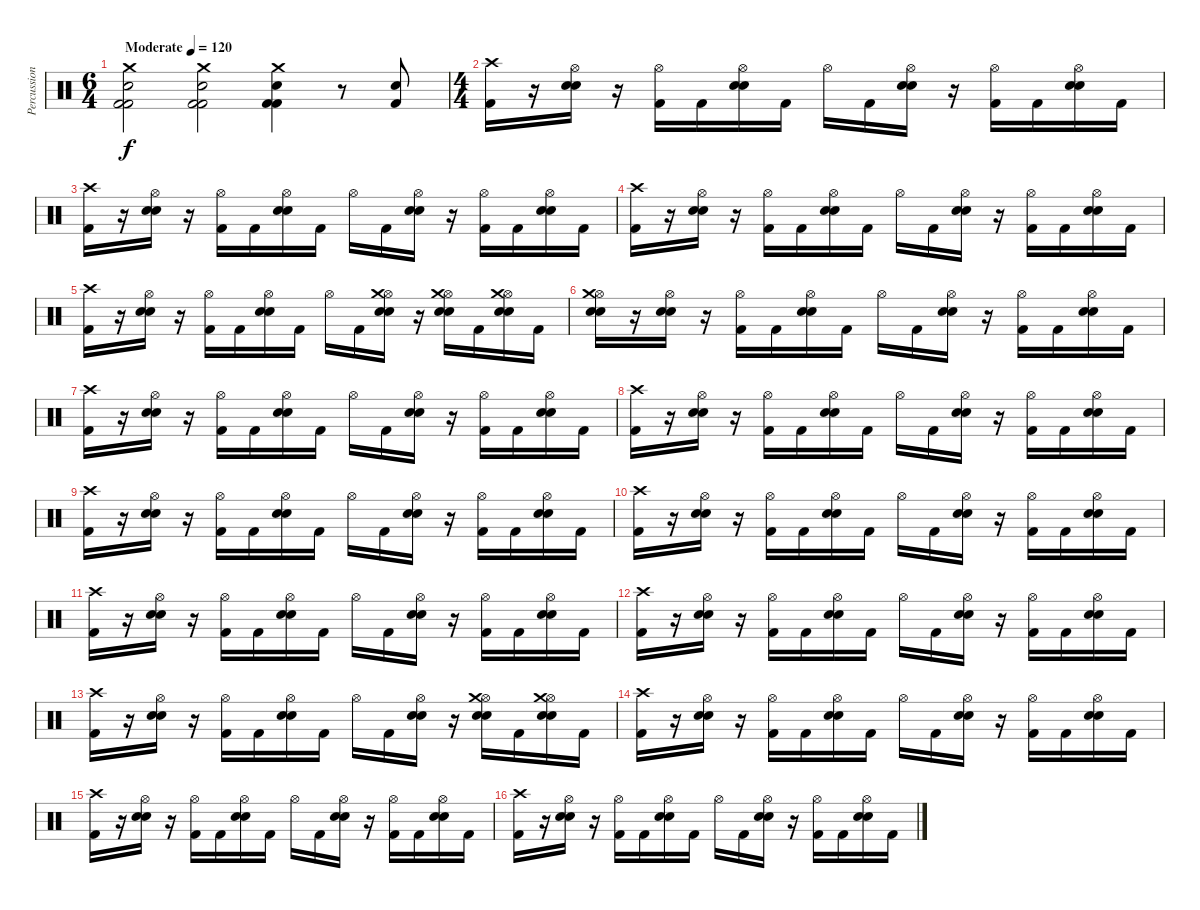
\track ("Percussion" "Percussion") {instrument percussion}
\staff {score}
\articulation defaults
\ts (6 4)
\tempo (120 "Moderate")
\clef neutral
\ks c
("Crash medium (hit)" "Electric Snare (hit)" "Kick (hit) 2" "Kick (hit) 2").2{dy f} ("Crash medium (hit)" "Electric Snare (hit)" "Kick (hit) 2" "Kick (hit) 2").2 ("Crash medium (hit)" "Electric Snare (hit)" "Kick (hit) 2" "Kick (hit) 2").4 r.8 ("Snare (hit) 2" "Kick (hit) 2").8 |
\ts (4 4)
("Kick (hit) 2" "Crash high (hit)").16 r.16 ("Hi-Hat (open)" "Electric Snare (hit)" "Snare (hit) 2").16 r.16 ("Kick (hit) 2" "Hi-Hat (open)").16 "Kick (hit) 2".16 ("Electric Snare (hit)" "Hi-Hat (open)" "Snare (hit) 2").16 "Kick (hit) 2".16 "Hi-Hat (open)".16 "Kick (hit) 2".16 ("Hi-Hat (open)" "Electric Snare (hit)" "Snare (hit) 2").16 r.16 ("Kick (hit) 2" "Hi-Hat (open)").16 "Kick (hit) 2".16 ("Electric Snare (hit)" "Hi-Hat (open)" "Snare (hit) 2").16 "Kick (hit) 2".16 |
("Kick (hit) 2" "Crash high (hit)").16 r.16 ("Hi-Hat (open)" "Electric Snare (hit)" "Snare (hit) 2").16 r.16 ("Kick (hit) 2" "Hi-Hat (open)").16 "Kick (hit) 2".16 ("Electric Snare (hit)" "Hi-Hat (open)" "Snare (hit) 2").16 "Kick (hit) 2".16 "Hi-Hat (open)".16 "Kick (hit) 2".16 ("Hi-Hat (open)" "Electric Snare (hit)" "Snare (hit) 2").16 r.16 ("Kick (hit) 2" "Hi-Hat (open)").16 "Kick (hit) 2".16 ("Electric Snare (hit)" "Hi-Hat (open)" "Snare (hit) 2").16 "Kick (hit) 2".16 |
("Kick (hit) 2" "Crash high (hit)").16 r.16 ("Hi-Hat (open)" "Electric Snare (hit)" "Snare (hit) 2").16 r.16 ("Kick (hit) 2" "Hi-Hat (open)").16 "Kick (hit) 2".16 ("Electric Snare (hit)" "Hi-Hat (open)" "Snare (hit) 2").16 "Kick (hit) 2".16 "Hi-Hat (open)".16 "Kick (hit) 2".16 ("Hi-Hat (open)" "Electric Snare (hit)" "Snare (hit) 2").16 r.16 ("Kick (hit) 2" "Hi-Hat (open)").16 "Kick (hit) 2".16 ("Electric Snare (hit)" "Hi-Hat (open)" "Snare (hit) 2").16 "Kick (hit) 2".16 |
("Kick (hit) 2" "Crash high (hit)").16 r.16 ("Hi-Hat (open)" "Electric Snare (hit)" "Snare (hit) 2").16 r.16 ("Kick (hit) 2" "Hi-Hat (open)").16 "Kick (hit) 2".16 ("Electric Snare (hit)" "Hi-Hat (open)" "Snare (hit) 2").16 "Kick (hit) 2".16 "Hi-Hat (open)".16 "Kick (hit) 2".16 ("Hi-Hat (open)" "Electric Snare (hit)" "Snare (hit) 2" "Crash medium (hit)").16 r.16 ("Hi-Hat (open)" "Electric Snare (hit)" "Snare (hit) 2" "Crash medium (hit)").16 "Kick (hit) 2".16 ("Hi-Hat (open)" "Electric Snare (hit)" "Snare (hit) 2" "Crash medium (hit)").16 "Kick (hit) 2".16 |
("Hi-Hat (open)" "Electric Snare (hit)" "Snare (hit) 2" "Crash medium (hit)").16 r.16 ("Hi-Hat (open)" "Electric Snare (hit)" "Snare (hit) 2").16 r.16 ("Kick (hit) 2" "Hi-Hat (open)").16 "Kick (hit) 2".16 ("Electric Snare (hit)" "Hi-Hat (open)" "Snare (hit) 2").16 "Kick (hit) 2".16 "Hi-Hat (open)".16 "Kick (hit) 2".16 ("Hi-Hat (open)" "Electric Snare (hit)" "Snare (hit) 2").16 r.16 ("Kick (hit) 2" "Hi-Hat (open)").16 "Kick (hit) 2".16 ("Electric Snare (hit)" "Hi-Hat (open)" "Snare (hit) 2").16 "Kick (hit) 2".16 |
("Kick (hit) 2" "Crash high (hit)").16 r.16 ("Hi-Hat (open)" "Electric Snare (hit)" "Snare (hit) 2").16 r.16 ("Kick (hit) 2" "Hi-Hat (open)").16 "Kick (hit) 2".16 ("Electric Snare (hit)" "Hi-Hat (open)" "Snare (hit) 2").16 "Kick (hit) 2".16 "Hi-Hat (open)".16 "Kick (hit) 2".16 ("Hi-Hat (open)" "Electric Snare (hit)" "Snare (hit) 2").16 r.16 ("Kick (hit) 2" "Hi-Hat (open)").16 "Kick (hit) 2".16 ("Electric Snare (hit)" "Hi-Hat (open)" "Snare (hit) 2").16 "Kick (hit) 2".16 |
("Kick (hit) 2" "Crash high (hit)").16 r.16 ("Hi-Hat (open)" "Electric Snare (hit)" "Snare (hit) 2").16 r.16 ("Kick (hit) 2" "Hi-Hat (open)").16 "Kick (hit) 2".16 ("Electric Snare (hit)" "Hi-Hat (open)" "Snare (hit) 2").16 "Kick (hit) 2".16 "Hi-Hat (open)".16 "Kick (hit) 2".16 ("Hi-Hat (open)" "Electric Snare (hit)" "Snare (hit) 2").16 r.16 ("Kick (hit) 2" "Hi-Hat (open)").16 "Kick (hit) 2".16 ("Electric Snare (hit)" "Hi-Hat (open)" "Snare (hit) 2").16 "Kick (hit) 2".16 |
("Kick (hit) 2" "Crash high (hit)").16 r.16 ("Hi-Hat (open)" "Electric Snare (hit)" "Snare (hit) 2").16 r.16 ("Kick (hit) 2" "Hi-Hat (open)").16 "Kick (hit) 2".16 ("Electric Snare (hit)" "Hi-Hat (open)" "Snare (hit) 2").16 "Kick (hit) 2".16 "Hi-Hat (open)".16 "Kick (hit) 2".16 ("Hi-Hat (open)" "Electric Snare (hit)" "Snare (hit) 2").16 r.16 ("Kick (hit) 2" "Hi-Hat (open)").16 "Kick (hit) 2".16 ("Electric Snare (hit)" "Hi-Hat (open)" "Snare (hit) 2").16 "Kick (hit) 2".16 |
("Kick (hit) 2" "Crash high (hit)").16 r.16 ("Hi-Hat (open)" "Electric Snare (hit)" "Snare (hit) 2").16 r.16 ("Kick (hit) 2" "Hi-Hat (open)").16 "Kick (hit) 2".16 ("Electric Snare (hit)" "Hi-Hat (open)" "Snare (hit) 2").16 "Kick (hit) 2".16 "Hi-Hat (open)".16 "Kick (hit) 2".16 ("Hi-Hat (open)" "Electric Snare (hit)" "Snare (hit) 2").16 r.16 ("Kick (hit) 2" "Hi-Hat (open)").16 "Kick (hit) 2".16 ("Electric Snare (hit)" "Hi-Hat (open)" "Snare (hit) 2").16 "Kick (hit) 2".16 |
("Kick (hit) 2" "Crash high (hit)").16 r.16 ("Hi-Hat (open)" "Electric Snare (hit)" "Snare (hit) 2").16 r.16 ("Kick (hit) 2" "Hi-Hat (open)").16 "Kick (hit) 2".16 ("Electric Snare (hit)" "Hi-Hat (open)" "Snare (hit) 2").16 "Kick (hit) 2".16 "Hi-Hat (open)".16 "Kick (hit) 2".16 ("Hi-Hat (open)" "Electric Snare (hit)" "Snare (hit) 2").16 r.16 ("Kick (hit) 2" "Hi-Hat (open)").16 "Kick (hit) 2".16 ("Electric Snare (hit)" "Hi-Hat (open)" "Snare (hit) 2").16 "Kick (hit) 2".16 |
("Kick (hit) 2" "Crash high (hit)").16 r.16 ("Hi-Hat (open)" "Electric Snare (hit)" "Snare (hit) 2").16 r.16 ("Kick (hit) 2" "Hi-Hat (open)").16 "Kick (hit) 2".16 ("Electric Snare (hit)" "Hi-Hat (open)" "Snare (hit) 2").16 "Kick (hit) 2".16 "Hi-Hat (open)".16 "Kick (hit) 2".16 ("Hi-Hat (open)" "Electric Snare (hit)" "Snare (hit) 2").16 r.16 ("Kick (hit) 2" "Hi-Hat (open)").16 "Kick (hit) 2".16 ("Electric Snare (hit)" "Hi-Hat (open)" "Snare (hit) 2").16 "Kick (hit) 2".16 |
("Kick (hit) 2" "Crash high (hit)").16 r.16 ("Hi-Hat (open)" "Electric Snare (hit)" "Snare (hit) 2").16 r.16 ("Kick (hit) 2" "Hi-Hat (open)").16 "Kick (hit) 2".16 ("Electric Snare (hit)" "Hi-Hat (open)" "Snare (hit) 2").16 "Kick (hit) 2".16 "Hi-Hat (open)".16 "Kick (hit) 2".16 ("Hi-Hat (open)" "Electric Snare (hit)" "Snare (hit) 2").16 r.16 ("Hi-Hat (open)" "Electric Snare (hit)" "Snare (hit) 2" "Crash medium (hit)").16 "Kick (hit) 2".16 ("Hi-Hat (open)" "Electric Snare (hit)" "Snare (hit) 2" "Crash medium (hit)").16 "Kick (hit) 2".16 |
("Kick (hit) 2" "Crash high (hit)").16 r.16 ("Hi-Hat (open)" "Electric Snare (hit)" "Snare (hit) 2").16 r.16 ("Kick (hit) 2" "Hi-Hat (open)").16 "Kick (hit) 2".16 ("Electric Snare (hit)" "Hi-Hat (open)" "Snare (hit) 2").16 "Kick (hit) 2".16 "Hi-Hat (open)".16 "Kick (hit) 2".16 ("Hi-Hat (open)" "Electric Snare (hit)" "Snare (hit) 2").16 r.16 ("Kick (hit) 2" "Hi-Hat (open)").16 "Kick (hit) 2".16 ("Electric Snare (hit)" "Hi-Hat (open)" "Snare (hit) 2").16 "Kick (hit) 2".16 |
("Kick (hit) 2" "Crash high (hit)").16 r.16 ("Hi-Hat (open)" "Electric Snare (hit)" "Snare (hit) 2").16 r.16 ("Kick (hit) 2" "Hi-Hat (open)").16 "Kick (hit) 2".16 ("Electric Snare (hit)" "Hi-Hat (open)" "Snare (hit) 2").16 "Kick (hit) 2".16 "Hi-Hat (open)".16 "Kick (hit) 2".16 ("Hi-Hat (open)" "Electric Snare (hit)" "Snare (hit) 2").16 r.16 ("Kick (hit) 2" "Hi-Hat (open)").16 "Kick (hit) 2".16 ("Electric Snare (hit)" "Hi-Hat (open)" "Snare (hit) 2").16 "Kick (hit) 2".16 |
("Kick (hit) 2" "Crash high (hit)").16 r.16 ("Hi-Hat (open)" "Electric Snare (hit)" "Snare (hit) 2").16 r.16 ("Kick (hit) 2" "Hi-Hat (open)").16 "Kick (hit) 2".16 ("Electric Snare (hit)" "Hi-Hat (open)" "Snare (hit) 2").16 "Kick (hit) 2".16 "Hi-Hat (open)".16 "Kick (hit) 2".16 ("Hi-Hat (open)" "Electric Snare (hit)" "Snare (hit) 2").16 r.16 ("Kick (hit) 2" "Hi-Hat (open)").16 "Kick (hit) 2".16 ("Electric Snare (hit)" "Hi-Hat (open)" "Snare (hit) 2").16 "Kick (hit) 2".16
